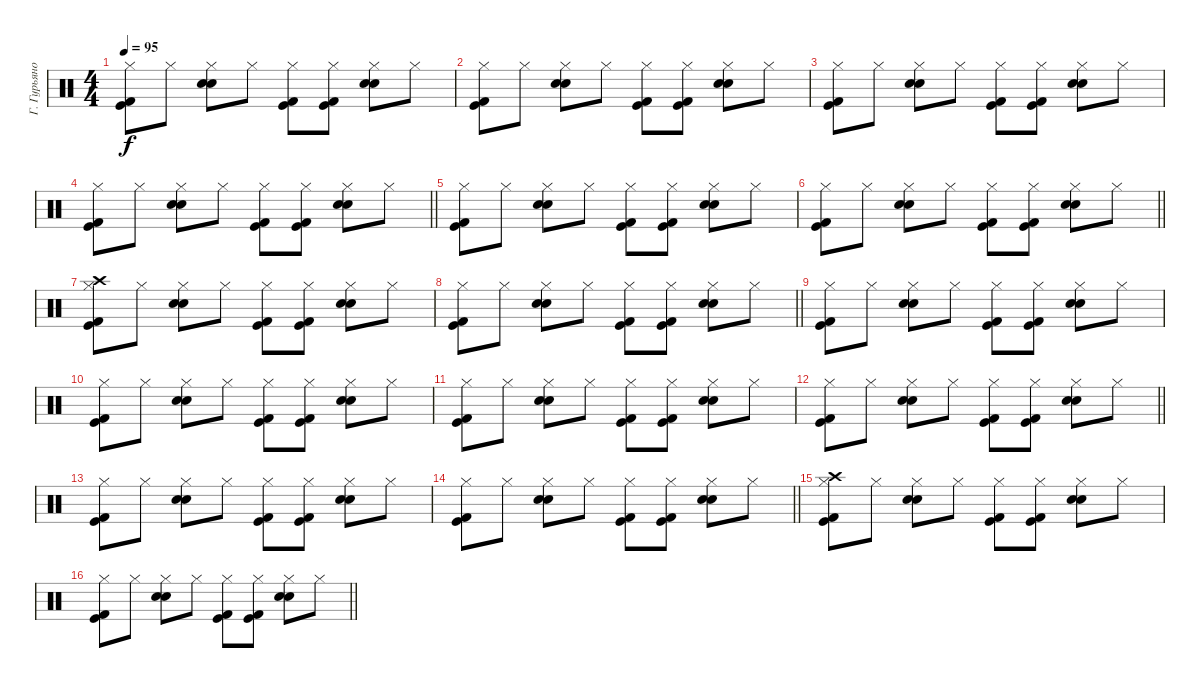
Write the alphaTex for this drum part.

\track ("Г. Гурьянов" "Г. Гурьяно") {instrument percussion}
\staff {score}
\articulation defaults
\ts (4 4)
\tempo 95
\clef neutral
\ks c
("Kick (hit) 2" "Kick (hit)" "Hi-Hat (closed)").8{dy f} "Hi-Hat (closed)".8 ("Electric Snare (hit)" "Snare (hit) 2" "Hi-Hat (closed)").8 "Hi-Hat (closed)".8 ("Kick (hit) 2" "Kick (hit)" "Hi-Hat (closed)").8 ("Kick (hit) 2" "Kick (hit)" "Hi-Hat (closed)").8 ("Electric Snare (hit)" "Snare (hit) 2" "Hi-Hat (closed)").8 "Hi-Hat (closed)".8 |
("Kick (hit) 2" "Kick (hit)" "Hi-Hat (closed)").8 "Hi-Hat (closed)".8 ("Electric Snare (hit)" "Snare (hit) 2" "Hi-Hat (closed)").8 "Hi-Hat (closed)".8 ("Kick (hit) 2" "Kick (hit)" "Hi-Hat (closed)").8 ("Kick (hit) 2" "Kick (hit)" "Hi-Hat (closed)").8 ("Electric Snare (hit)" "Snare (hit) 2" "Hi-Hat (closed)").8 "Hi-Hat (closed)".8 |
("Kick (hit) 2" "Kick (hit)" "Hi-Hat (closed)").8 "Hi-Hat (closed)".8 ("Electric Snare (hit)" "Snare (hit) 2" "Hi-Hat (closed)").8 "Hi-Hat (closed)".8 ("Kick (hit) 2" "Kick (hit)" "Hi-Hat (closed)").8 ("Kick (hit) 2" "Kick (hit)" "Hi-Hat (closed)").8 ("Electric Snare (hit)" "Snare (hit) 2" "Hi-Hat (closed)").8 "Hi-Hat (closed)".8 |
\barLineRight lightlight
("Kick (hit) 2" "Kick (hit)" "Hi-Hat (closed)").8 "Hi-Hat (closed)".8 ("Electric Snare (hit)" "Snare (hit) 2" "Hi-Hat (closed)").8 "Hi-Hat (closed)".8 ("Kick (hit) 2" "Kick (hit)" "Hi-Hat (closed)").8 ("Kick (hit) 2" "Kick (hit)" "Hi-Hat (closed)").8 ("Electric Snare (hit)" "Snare (hit) 2" "Hi-Hat (closed)").8 "Hi-Hat (closed)".8 |
("Kick (hit) 2" "Kick (hit)" "Hi-Hat (closed)").8 "Hi-Hat (closed)".8 ("Electric Snare (hit)" "Snare (hit) 2" "Hi-Hat (closed)").8 "Hi-Hat (closed)".8 ("Kick (hit) 2" "Kick (hit)" "Hi-Hat (closed)").8 ("Kick (hit) 2" "Kick (hit)" "Hi-Hat (closed)").8 ("Electric Snare (hit)" "Snare (hit) 2" "Hi-Hat (closed)").8 "Hi-Hat (closed)".8 |
\barLineRight lightlight
("Kick (hit) 2" "Kick (hit)" "Hi-Hat (closed)").8 "Hi-Hat (closed)".8 ("Electric Snare (hit)" "Snare (hit) 2" "Hi-Hat (closed)").8 "Hi-Hat (closed)".8 ("Kick (hit) 2" "Kick (hit)" "Hi-Hat (closed)").8 ("Kick (hit) 2" "Kick (hit)" "Hi-Hat (closed)").8 ("Electric Snare (hit)" "Snare (hit) 2" "Hi-Hat (closed)").8 "Hi-Hat (closed)".8 |
("Kick (hit) 2" "Kick (hit)" "Crash high (hit)" "Hi-Hat (closed)").8 "Hi-Hat (closed)".8 ("Electric Snare (hit)" "Snare (hit) 2" "Hi-Hat (closed)").8 "Hi-Hat (closed)".8 ("Kick (hit) 2" "Kick (hit)" "Hi-Hat (closed)").8 ("Kick (hit) 2" "Kick (hit)" "Hi-Hat (closed)").8 ("Electric Snare (hit)" "Snare (hit) 2" "Hi-Hat (closed)").8 "Hi-Hat (closed)".8 |
\barLineRight lightlight
("Kick (hit) 2" "Kick (hit)" "Hi-Hat (closed)").8 "Hi-Hat (closed)".8 ("Electric Snare (hit)" "Snare (hit) 2" "Hi-Hat (closed)").8 "Hi-Hat (closed)".8 ("Kick (hit) 2" "Kick (hit)" "Hi-Hat (closed)").8 ("Kick (hit) 2" "Kick (hit)" "Hi-Hat (closed)").8 ("Electric Snare (hit)" "Snare (hit) 2" "Hi-Hat (closed)").8 "Hi-Hat (closed)".8 |
("Kick (hit) 2" "Kick (hit)" "Hi-Hat (closed)").8 "Hi-Hat (closed)".8 ("Electric Snare (hit)" "Snare (hit) 2" "Hi-Hat (closed)").8 "Hi-Hat (closed)".8 ("Kick (hit) 2" "Kick (hit)" "Hi-Hat (closed)").8 ("Kick (hit) 2" "Kick (hit)" "Hi-Hat (closed)").8 ("Electric Snare (hit)" "Snare (hit) 2" "Hi-Hat (closed)").8 "Hi-Hat (closed)".8 |
("Kick (hit) 2" "Kick (hit)" "Hi-Hat (closed)").8 "Hi-Hat (closed)".8 ("Electric Snare (hit)" "Snare (hit) 2" "Hi-Hat (closed)").8 "Hi-Hat (closed)".8 ("Kick (hit) 2" "Kick (hit)" "Hi-Hat (closed)").8 ("Kick (hit) 2" "Kick (hit)" "Hi-Hat (closed)").8 ("Electric Snare (hit)" "Snare (hit) 2" "Hi-Hat (closed)").8 "Hi-Hat (closed)".8 |
("Kick (hit) 2" "Kick (hit)" "Hi-Hat (closed)").8 "Hi-Hat (closed)".8 ("Electric Snare (hit)" "Snare (hit) 2" "Hi-Hat (closed)").8 "Hi-Hat (closed)".8 ("Kick (hit) 2" "Kick (hit)" "Hi-Hat (closed)").8 ("Kick (hit) 2" "Kick (hit)" "Hi-Hat (closed)").8 ("Electric Snare (hit)" "Snare (hit) 2" "Hi-Hat (closed)").8 "Hi-Hat (closed)".8 |
\barLineRight lightlight
("Kick (hit) 2" "Kick (hit)" "Hi-Hat (closed)").8 "Hi-Hat (closed)".8 ("Electric Snare (hit)" "Snare (hit) 2" "Hi-Hat (closed)").8 "Hi-Hat (closed)".8 ("Kick (hit) 2" "Kick (hit)" "Hi-Hat (closed)").8 ("Kick (hit) 2" "Kick (hit)" "Hi-Hat (closed)").8 ("Electric Snare (hit)" "Snare (hit) 2" "Hi-Hat (closed)").8 "Hi-Hat (closed)".8 |
("Kick (hit) 2" "Kick (hit)" "Hi-Hat (closed)").8 "Hi-Hat (closed)".8 ("Electric Snare (hit)" "Snare (hit) 2" "Hi-Hat (closed)").8 "Hi-Hat (closed)".8 ("Kick (hit) 2" "Kick (hit)" "Hi-Hat (closed)").8 ("Kick (hit) 2" "Kick (hit)" "Hi-Hat (closed)").8 ("Electric Snare (hit)" "Snare (hit) 2" "Hi-Hat (closed)").8 "Hi-Hat (closed)".8 |
\barLineRight lightlight
("Kick (hit) 2" "Kick (hit)" "Hi-Hat (closed)").8 "Hi-Hat (closed)".8 ("Electric Snare (hit)" "Snare (hit) 2" "Hi-Hat (closed)").8 "Hi-Hat (closed)".8 ("Kick (hit) 2" "Kick (hit)" "Hi-Hat (closed)").8 ("Kick (hit) 2" "Kick (hit)" "Hi-Hat (closed)").8 ("Electric Snare (hit)" "Snare (hit) 2" "Hi-Hat (closed)").8 "Hi-Hat (closed)".8 |
("Kick (hit) 2" "Kick (hit)" "Crash high (hit)" "Hi-Hat (closed)").8 "Hi-Hat (closed)".8 ("Electric Snare (hit)" "Snare (hit) 2" "Hi-Hat (closed)").8 "Hi-Hat (closed)".8 ("Kick (hit) 2" "Kick (hit)" "Hi-Hat (closed)").8 ("Kick (hit) 2" "Kick (hit)" "Hi-Hat (closed)").8 ("Electric Snare (hit)" "Snare (hit) 2" "Hi-Hat (closed)").8 "Hi-Hat (closed)".8 |
\barLineRight lightlight
("Kick (hit) 2" "Kick (hit)" "Hi-Hat (closed)").8 "Hi-Hat (closed)".8 ("Electric Snare (hit)" "Snare (hit) 2" "Hi-Hat (closed)").8 "Hi-Hat (closed)".8 ("Kick (hit) 2" "Kick (hit)" "Hi-Hat (closed)").8 ("Kick (hit) 2" "Kick (hit)" "Hi-Hat (closed)").8 ("Electric Snare (hit)" "Snare (hit) 2" "Hi-Hat (closed)").8 "Hi-Hat (closed)".8
